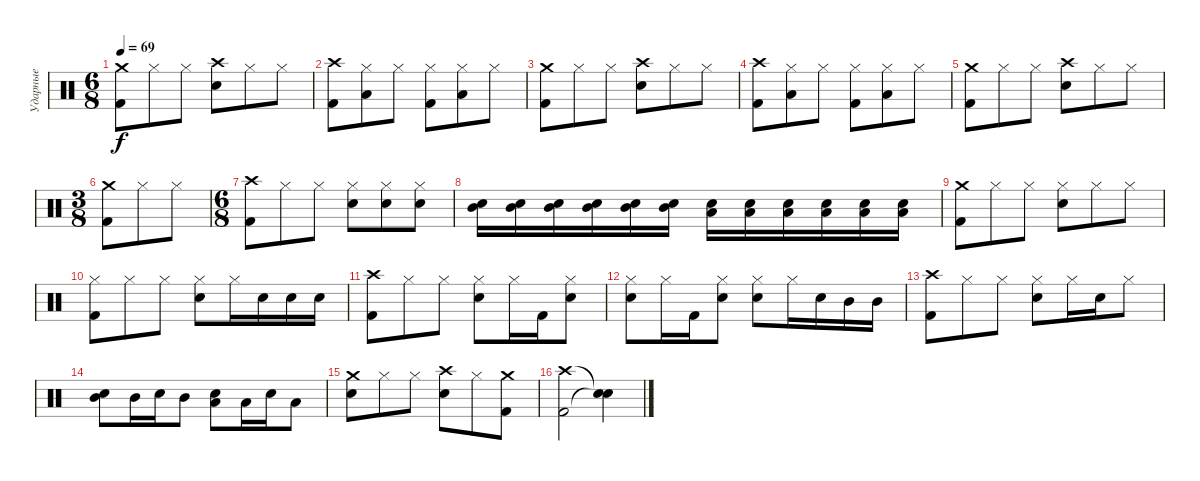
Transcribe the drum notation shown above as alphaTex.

\track ("Ударные" "Ударные") {instrument percussion}
\staff {score}
\articulation defaults
\ts (6 8)
\tempo 69
\clef neutral
\ks c
("Crash medium (hit)" "Kick (hit) 2").8{dy f} "Hi-Hat (closed)".8 "Hi-Hat (closed)".8 ("Crash high (hit)" "Snare (hit) 2").8 "Hi-Hat (closed)".8 "Hi-Hat (closed)".8 |
("Crash high (hit)" "Kick (hit) 2").8 ("Hi-Hat (closed)" "Low Tom (hit)").8 "Hi-Hat (closed)".8 ("Hi-Hat (closed)" "Kick (hit) 2").8 ("Hi-Hat (closed)" "Low Tom (hit)").8 "Hi-Hat (closed)".8 |
("Crash medium (hit)" "Kick (hit) 2").8 "Hi-Hat (closed)".8 "Hi-Hat (closed)".8 ("Crash high (hit)" "Snare (hit) 2").8 "Hi-Hat (closed)".8 "Hi-Hat (closed)".8 |
("Crash high (hit)" "Kick (hit) 2").8 ("Hi-Hat (closed)" "Low Tom (hit)").8 "Hi-Hat (closed)".8 ("Hi-Hat (closed)" "Kick (hit) 2").8 ("Hi-Hat (closed)" "Low Tom (hit)").8 "Hi-Hat (closed)".8 |
("Crash medium (hit)" "Kick (hit) 2").8 "Hi-Hat (closed)".8 "Hi-Hat (closed)".8 ("Crash high (hit)" "Snare (hit) 2").8 "Hi-Hat (closed)".8 "Hi-Hat (closed)".8 |
\ts (3 8)
("Crash medium (hit)" "Kick (hit) 2").8 "Hi-Hat (closed)".8 "Hi-Hat (closed)".8 |
\ts (6 8)
("Crash high (hit)" "Kick (hit) 2").8 "Hi-Hat (closed)".8 "Hi-Hat (closed)".8 ("Hi-Hat (closed)" "Snare (hit) 2").8 ("Hi-Hat (closed)" "Snare (hit) 2").8 ("Hi-Hat (closed)" "Snare (hit) 2").8 |
("Mid Tom (hit)" "Snare (hit) 2").16 ("Mid Tom (hit)" "Snare (hit) 2").16 ("Mid Tom (hit)" "Snare (hit) 2").16 ("Mid Tom (hit)" "Snare (hit) 2").16 ("Mid Tom (hit)" "Snare (hit) 2").16 ("Mid Tom (hit)" "Snare (hit) 2").16 ("Low Tom (hit)" "Snare (hit) 2").16 ("Low Tom (hit)" "Snare (hit) 2").16 ("Low Tom (hit)" "Snare (hit) 2").16 ("Low Tom (hit)" "Snare (hit) 2").16 ("Low Tom (hit)" "Snare (hit) 2").16 ("Low Tom (hit)" "Snare (hit) 2").16 |
("Crash medium (hit)" "Kick (hit) 2").8 "Hi-Hat (closed)".8 "Hi-Hat (closed)".8 ("Hi-Hat (closed)" "Snare (hit) 2").8 "Hi-Hat (closed)".8 "Hi-Hat (closed)".8 |
("Hi-Hat (closed)" "Kick (hit) 2").8 "Hi-Hat (closed)".8 "Hi-Hat (closed)".8 ("Hi-Hat (closed)" "Snare (hit) 2").8 "Hi-Hat (closed)".16 "Snare (hit) 2".16 "Snare (hit) 2".16 "Snare (hit) 2".16 |
("Crash high (hit)" "Kick (hit) 2").8 "Hi-Hat (closed)".8 "Hi-Hat (closed)".8 ("Hi-Hat (closed)" "Snare (hit) 2").8 "Hi-Hat (closed)".16 "Kick (hit) 2".16 ("Hi-Hat (closed)" "Snare (hit) 2").8 |
("Hi-Hat (closed)" "Snare (hit) 2").8 "Hi-Hat (closed)".16 "Kick (hit) 2".16 ("Hi-Hat (closed)" "Snare (hit) 2").8 ("Hi-Hat (closed)" "Snare (hit) 2").8 "Hi-Hat (closed)".16 "Snare (hit) 2".16 "Mid Tom (hit)".16 "Mid Tom (hit)".16 |
("Crash high (hit)" "Kick (hit) 2").8 "Hi-Hat (closed)".8 "Hi-Hat (closed)".8 ("Hi-Hat (closed)" "Snare (hit) 2").8 "Hi-Hat (closed)".16 "Snare (hit) 2".16 "Hi-Hat (closed)".8 |
("Snare (hit) 2" "Mid Tom (hit)").8 "Mid Tom (hit)".16 "Snare (hit) 2".16 "Mid Tom (hit)".8 ("Snare (hit) 2" "Low Tom (hit)").8 "Low Tom (hit)".16 "Snare (hit) 2".16 "Low Tom (hit)".8 |
("Crash medium (hit)" "Snare (hit) 2").8 "Hi-Hat (closed)".8 "Hi-Hat (closed)".8 ("Crash high (hit)" "Snare (hit) 2").8 "Hi-Hat (closed)".8 ("Crash medium (hit)" "Kick (hit) 2").8 |
("Crash high (hit)" "Kick (hit) 2").2 ("Snare (hit)"{t} "Snare (hit)"{t}).4
